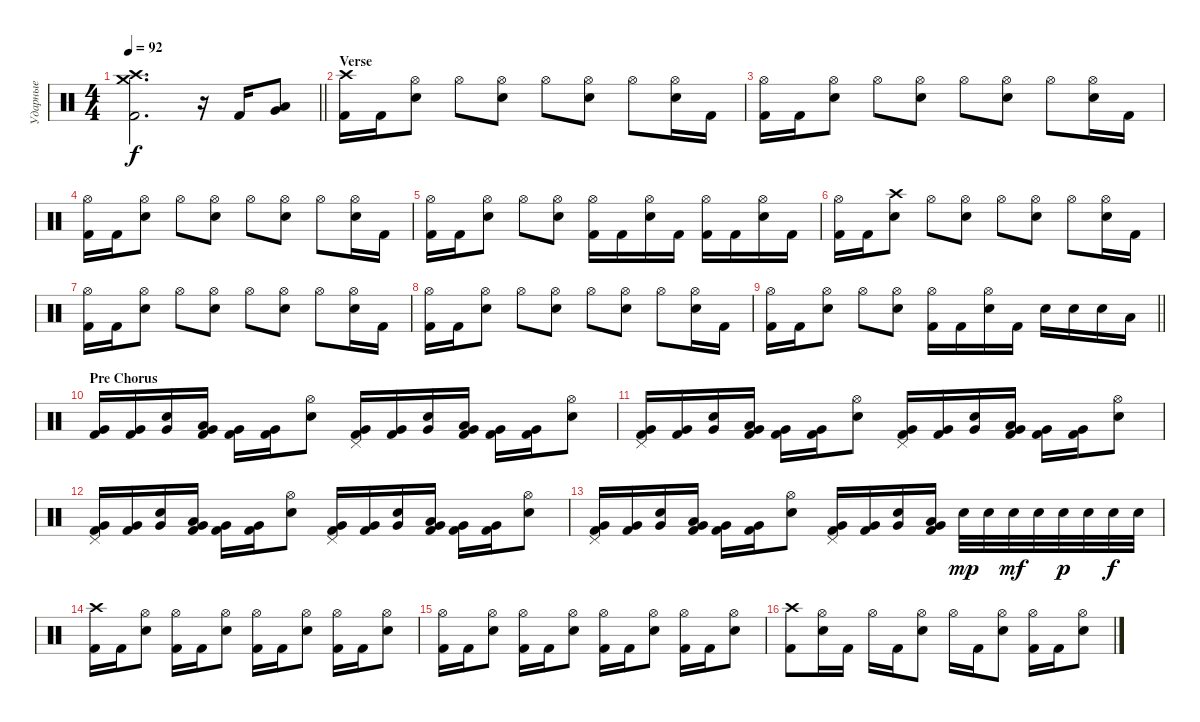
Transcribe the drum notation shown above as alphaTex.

\track ("Ударные" "Ударные") {instrument percussion}
\staff {score}
\articulation defaults
\ts (4 4)
\tempo 92
\clef neutral
\barLineRight lightlight
\ks c
("Crash high (hit)" "Crash medium (hit)" "Kick (hit) 2").2{d dy f} r.16 "Kick (hit) 2".16 ("Low Tom (hit)" "Very Low Tom (hit)").8 |
\section ("" "Verse")
("Crash high (hit)" "Kick (hit) 2").16 "Kick (hit) 2".16 ("Hi-Hat (open)" "Electric Snare (hit)").8 "Hi-Hat (open)".8 ("Hi-Hat (open)" "Electric Snare (hit)").8 "Hi-Hat (open)".8 ("Hi-Hat (open)" "Electric Snare (hit)").8 "Hi-Hat (open)".8 ("Hi-Hat (open)" "Electric Snare (hit)").16 "Kick (hit) 2".16 |
("Hi-Hat (open)" "Kick (hit) 2").16 "Kick (hit) 2".16 ("Hi-Hat (open)" "Electric Snare (hit)").8 "Hi-Hat (open)".8 ("Hi-Hat (open)" "Electric Snare (hit)").8 "Hi-Hat (open)".8 ("Hi-Hat (open)" "Electric Snare (hit)").8 "Hi-Hat (open)".8 ("Hi-Hat (open)" "Electric Snare (hit)").16 "Kick (hit) 2".16 |
("Hi-Hat (open)" "Kick (hit) 2").16 "Kick (hit) 2".16 ("Hi-Hat (open)" "Electric Snare (hit)").8 "Hi-Hat (open)".8 ("Hi-Hat (open)" "Electric Snare (hit)").8 "Hi-Hat (open)".8 ("Hi-Hat (open)" "Electric Snare (hit)").8 "Hi-Hat (open)".8 ("Hi-Hat (open)" "Electric Snare (hit)").16 "Kick (hit) 2".16 |
("Hi-Hat (open)" "Kick (hit) 2").16 "Kick (hit) 2".16 ("Hi-Hat (open)" "Electric Snare (hit)").8 "Hi-Hat (open)".8 ("Hi-Hat (open)" "Electric Snare (hit)").8 ("Hi-Hat (open)" "Kick (hit) 2").16 "Kick (hit) 2".16 ("Hi-Hat (open)" "Electric Snare (hit)").16 "Kick (hit) 2".16 ("Hi-Hat (open)" "Kick (hit) 2").16 "Kick (hit) 2".16 ("Hi-Hat (open)" "Electric Snare (hit)").16 "Kick (hit) 2".16 |
("Hi-Hat (open)" "Kick (hit) 2").16 "Kick (hit) 2".16 ("Crash high (hit)" "Electric Snare (hit)").8 "Hi-Hat (open)".8 ("Hi-Hat (open)" "Electric Snare (hit)").8 "Hi-Hat (open)".8 ("Hi-Hat (open)" "Electric Snare (hit)").8 "Hi-Hat (open)".8 ("Hi-Hat (open)" "Electric Snare (hit)").16 "Kick (hit) 2".16 |
("Hi-Hat (open)" "Kick (hit) 2").16 "Kick (hit) 2".16 ("Hi-Hat (open)" "Electric Snare (hit)").8 "Hi-Hat (open)".8 ("Hi-Hat (open)" "Electric Snare (hit)").8 "Hi-Hat (open)".8 ("Hi-Hat (open)" "Electric Snare (hit)").8 "Hi-Hat (open)".8 ("Hi-Hat (open)" "Electric Snare (hit)").16 "Kick (hit) 2".16 |
("Hi-Hat (open)" "Kick (hit) 2").16 "Kick (hit) 2".16 ("Hi-Hat (open)" "Electric Snare (hit)").8 "Hi-Hat (open)".8 ("Hi-Hat (open)" "Electric Snare (hit)").8 "Hi-Hat (open)".8 ("Hi-Hat (open)" "Electric Snare (hit)").8 "Hi-Hat (open)".8 ("Hi-Hat (open)" "Electric Snare (hit)").16 "Kick (hit) 2".16 |
\barLineRight lightlight
("Hi-Hat (open)" "Kick (hit) 2").16 "Kick (hit) 2".16 ("Hi-Hat (open)" "Electric Snare (hit)").8 "Hi-Hat (open)".8 ("Hi-Hat (open)" "Electric Snare (hit)").8 ("Hi-Hat (open)" "Kick (hit) 2").16 "Kick (hit) 2".16 ("Hi-Hat (open)" "Electric Snare (hit)").16 "Kick (hit) 2".16 "Electric Snare (hit)".16 "Electric Snare (hit)".16 "Electric Snare (hit)".16 "Low Tom (hit)".16 |
\section ("" "Pre Chorus")
("Very Low Tom (hit)" "Kick (hit) 2").16 ("Very Low Tom (hit)" "Kick (hit) 2").16 ("Electric Snare (hit)" "Very Low Tom (hit)").16 ("Low Tom (hit)" "Very Low Tom (hit)" "Kick (hit) 2").16 ("Very Low Tom (hit)" "Kick (hit) 2").16 ("Very Low Tom (hit)" "Kick (hit) 2").16 ("Hi-Hat (open)" "Electric Snare (hit)").8 ("Pedal Hi-Hat (hit)" "Very Low Tom (hit)" "Kick (hit) 2").16 ("Very Low Tom (hit)" "Kick (hit) 2").16 ("Electric Snare (hit)" "Very Low Tom (hit)").16 ("Low Tom (hit)" "Very Low Tom (hit)" "Kick (hit) 2").16 ("Very Low Tom (hit)" "Kick (hit) 2").16 ("Very Low Tom (hit)" "Kick (hit) 2").16 ("Hi-Hat (open)" "Electric Snare (hit)").8 |
("Pedal Hi-Hat (hit)" "Very Low Tom (hit)" "Kick (hit) 2").16 ("Very Low Tom (hit)" "Kick (hit) 2").16 ("Electric Snare (hit)" "Very Low Tom (hit)").16 ("Low Tom (hit)" "Very Low Tom (hit)" "Kick (hit) 2").16 ("Very Low Tom (hit)" "Kick (hit) 2").16 ("Very Low Tom (hit)" "Kick (hit) 2").16 ("Hi-Hat (open)" "Electric Snare (hit)").8 ("Pedal Hi-Hat (hit)" "Very Low Tom (hit)" "Kick (hit) 2").16 ("Very Low Tom (hit)" "Kick (hit) 2").16 ("Electric Snare (hit)" "Very Low Tom (hit)").16 ("Low Tom (hit)" "Very Low Tom (hit)" "Kick (hit) 2").16 ("Very Low Tom (hit)" "Kick (hit) 2").16 ("Very Low Tom (hit)" "Kick (hit) 2").16 ("Hi-Hat (open)" "Electric Snare (hit)").8 |
("Pedal Hi-Hat (hit)" "Very Low Tom (hit)" "Kick (hit) 2").16 ("Very Low Tom (hit)" "Kick (hit) 2").16 ("Electric Snare (hit)" "Very Low Tom (hit)").16 ("Low Tom (hit)" "Very Low Tom (hit)" "Kick (hit) 2").16 ("Very Low Tom (hit)" "Kick (hit) 2").16 ("Very Low Tom (hit)" "Kick (hit) 2").16 ("Hi-Hat (open)" "Electric Snare (hit)").8 ("Pedal Hi-Hat (hit)" "Very Low Tom (hit)" "Kick (hit) 2").16 ("Very Low Tom (hit)" "Kick (hit) 2").16 ("Electric Snare (hit)" "Very Low Tom (hit)").16 ("Low Tom (hit)" "Very Low Tom (hit)" "Kick (hit) 2").16 ("Very Low Tom (hit)" "Kick (hit) 2").16 ("Very Low Tom (hit)" "Kick (hit) 2").16 ("Hi-Hat (open)" "Electric Snare (hit)").8 |
("Pedal Hi-Hat (hit)" "Very Low Tom (hit)" "Kick (hit) 2").16 ("Very Low Tom (hit)" "Kick (hit) 2").16 ("Electric Snare (hit)" "Very Low Tom (hit)").16 ("Low Tom (hit)" "Very Low Tom (hit)" "Kick (hit) 2").16 ("Very Low Tom (hit)" "Kick (hit) 2").16 ("Very Low Tom (hit)" "Kick (hit) 2").16 ("Hi-Hat (open)" "Electric Snare (hit)").8 ("Pedal Hi-Hat (hit)" "Very Low Tom (hit)" "Kick (hit) 2").16 ("Very Low Tom (hit)" "Kick (hit) 2").16 ("Electric Snare (hit)" "Very Low Tom (hit)").16 ("Low Tom (hit)" "Very Low Tom (hit)" "Kick (hit) 2").16 "Electric Snare (hit)".32{dy mp} "Electric Snare (hit)".32 "Electric Snare (hit)".32{dy mf} "Electric Snare (hit)".32 "Electric Snare (hit)".32{dy p} "Electric Snare (hit)".32 "Electric Snare (hit)".32{dy f} "Electric Snare (hit)".32 |
("Crash high (hit)" "Kick (hit) 2").16 "Kick (hit) 2".16 ("Hi-Hat (open)" "Electric Snare (hit)").8 ("Hi-Hat (open)" "Kick (hit) 2").16 "Kick (hit) 2".16 ("Hi-Hat (open)" "Electric Snare (hit)").8 ("Hi-Hat (open)" "Kick (hit) 2").16 "Kick (hit) 2".16 ("Hi-Hat (open)" "Electric Snare (hit)").8 ("Hi-Hat (open)" "Kick (hit) 2").16 "Kick (hit) 2".16 ("Hi-Hat (open)" "Electric Snare (hit)").8 |
("Hi-Hat (open)" "Kick (hit) 2").16 "Kick (hit) 2".16 ("Hi-Hat (open)" "Electric Snare (hit)").8 ("Hi-Hat (open)" "Kick (hit) 2").16 "Kick (hit) 2".16 ("Hi-Hat (open)" "Electric Snare (hit)").8 ("Hi-Hat (open)" "Kick (hit) 2").16 "Kick (hit) 2".16 ("Hi-Hat (open)" "Electric Snare (hit)").8 ("Hi-Hat (open)" "Kick (hit) 2").16 "Kick (hit) 2".16 ("Hi-Hat (open)" "Electric Snare (hit)").8 |
("Crash high (hit)" "Kick (hit) 2").8 ("Hi-Hat (open)" "Electric Snare (hit)").16 "Kick (hit) 2".16 "Hi-Hat (open)".16 "Kick (hit) 2".16 ("Hi-Hat (open)" "Electric Snare (hit)").8 "Hi-Hat (open)".16 "Kick (hit) 2".16 ("Hi-Hat (open)" "Electric Snare (hit)").8 ("Hi-Hat (open)" "Kick (hit) 2").16 "Kick (hit) 2".16 ("Hi-Hat (open)" "Electric Snare (hit)").8
